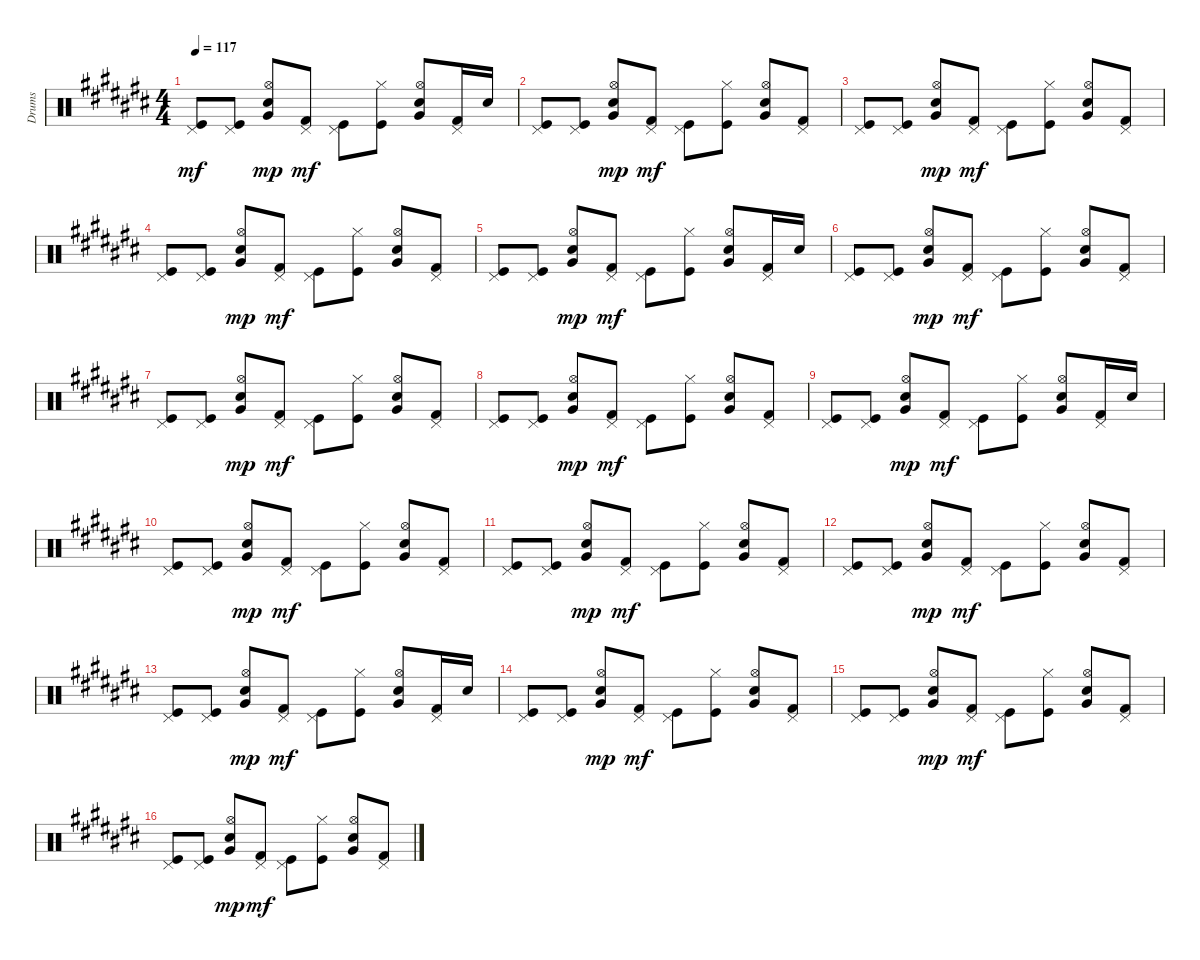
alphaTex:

\track ("Drums" "Drums") {instrument percussion}
\staff {score}
\articulation defaults
\ts (4 4)
\tempo 117
\clef neutral
\ks a#minor
("Pedal Hi-Hat (hit)" "Kick (hit)").8{dy mf} ("Kick (hit)" "Pedal Hi-Hat (hit)").8 ("Snare (hit) 2" "Hi-Hat (open)" "Very Low Tom (hit)").8{dy mp} ("Pedal Hi-Hat (hit)" "Kick (hit) 2").8{dy mf} ("Pedal Hi-Hat (hit)" "Kick (hit)").8 ("Kick (hit)" "Hi-Hat (closed)").8 ("Very Low Tom (hit)" "Snare (hit) 2" "Hi-Hat (open)").8 ("Pedal Hi-Hat (hit)" "Kick (hit) 2").16 "Snare (hit) 2".16 |
("Kick (hit)" "Pedal Hi-Hat (hit)").8 ("Kick (hit)" "Pedal Hi-Hat (hit)").8 ("Snare (hit) 2" "Hi-Hat (open)" "Very Low Tom (hit)").8{dy mp} ("Pedal Hi-Hat (hit)" "Kick (hit) 2").8{dy mf} ("Pedal Hi-Hat (hit)" "Kick (hit)").8 ("Kick (hit)" "Hi-Hat (closed)").8 ("Very Low Tom (hit)" "Snare (hit) 2" "Hi-Hat (open)").8 ("Pedal Hi-Hat (hit)" "Kick (hit) 2").8 |
("Pedal Hi-Hat (hit)" "Kick (hit)").8 ("Kick (hit)" "Pedal Hi-Hat (hit)").8 ("Snare (hit) 2" "Hi-Hat (open)" "Very Low Tom (hit)").8{dy mp} ("Pedal Hi-Hat (hit)" "Kick (hit) 2").8{dy mf} ("Pedal Hi-Hat (hit)" "Kick (hit)").8 ("Kick (hit)" "Hi-Hat (closed)").8 ("Very Low Tom (hit)" "Snare (hit) 2" "Hi-Hat (open)").8 ("Pedal Hi-Hat (hit)" "Kick (hit) 2").8 |
("Kick (hit)" "Pedal Hi-Hat (hit)").8 ("Kick (hit)" "Pedal Hi-Hat (hit)").8 ("Snare (hit) 2" "Hi-Hat (open)" "Very Low Tom (hit)").8{dy mp} ("Pedal Hi-Hat (hit)" "Kick (hit) 2").8{dy mf} ("Pedal Hi-Hat (hit)" "Kick (hit)").8 ("Kick (hit)" "Hi-Hat (closed)").8 ("Very Low Tom (hit)" "Snare (hit) 2" "Hi-Hat (open)").8 ("Pedal Hi-Hat (hit)" "Kick (hit) 2").8 |
("Pedal Hi-Hat (hit)" "Kick (hit)").8 ("Kick (hit)" "Pedal Hi-Hat (hit)").8 ("Snare (hit) 2" "Hi-Hat (open)" "Very Low Tom (hit)").8{dy mp} ("Pedal Hi-Hat (hit)" "Kick (hit) 2").8{dy mf} ("Pedal Hi-Hat (hit)" "Kick (hit)").8 ("Kick (hit)" "Hi-Hat (closed)").8 ("Very Low Tom (hit)" "Snare (hit) 2" "Hi-Hat (open)").8 ("Pedal Hi-Hat (hit)" "Kick (hit) 2").16 "Snare (hit) 2".16 |
("Kick (hit)" "Pedal Hi-Hat (hit)").8 ("Kick (hit)" "Pedal Hi-Hat (hit)").8 ("Snare (hit) 2" "Hi-Hat (open)" "Very Low Tom (hit)").8{dy mp} ("Pedal Hi-Hat (hit)" "Kick (hit) 2").8{dy mf} ("Pedal Hi-Hat (hit)" "Kick (hit)").8 ("Kick (hit)" "Hi-Hat (closed)").8 ("Very Low Tom (hit)" "Snare (hit) 2" "Hi-Hat (open)").8 ("Pedal Hi-Hat (hit)" "Kick (hit) 2").8 |
("Pedal Hi-Hat (hit)" "Kick (hit)").8 ("Kick (hit)" "Pedal Hi-Hat (hit)").8 ("Snare (hit) 2" "Hi-Hat (open)" "Very Low Tom (hit)").8{dy mp} ("Pedal Hi-Hat (hit)" "Kick (hit) 2").8{dy mf} ("Pedal Hi-Hat (hit)" "Kick (hit)").8 ("Kick (hit)" "Hi-Hat (closed)").8 ("Very Low Tom (hit)" "Snare (hit) 2" "Hi-Hat (open)").8 ("Pedal Hi-Hat (hit)" "Kick (hit) 2").8 |
("Kick (hit)" "Pedal Hi-Hat (hit)").8 ("Kick (hit)" "Pedal Hi-Hat (hit)").8 ("Snare (hit) 2" "Hi-Hat (open)" "Very Low Tom (hit)").8{dy mp} ("Pedal Hi-Hat (hit)" "Kick (hit) 2").8{dy mf} ("Pedal Hi-Hat (hit)" "Kick (hit)").8 ("Kick (hit)" "Hi-Hat (closed)").8 ("Very Low Tom (hit)" "Snare (hit) 2" "Hi-Hat (open)").8 ("Pedal Hi-Hat (hit)" "Kick (hit) 2").8 |
("Pedal Hi-Hat (hit)" "Kick (hit)").8 ("Kick (hit)" "Pedal Hi-Hat (hit)").8 ("Snare (hit) 2" "Hi-Hat (open)" "Very Low Tom (hit)").8{dy mp} ("Pedal Hi-Hat (hit)" "Kick (hit) 2").8{dy mf} ("Pedal Hi-Hat (hit)" "Kick (hit)").8 ("Kick (hit)" "Hi-Hat (closed)").8 ("Very Low Tom (hit)" "Snare (hit) 2" "Hi-Hat (open)").8 ("Pedal Hi-Hat (hit)" "Kick (hit) 2").16 "Snare (hit) 2".16 |
("Kick (hit)" "Pedal Hi-Hat (hit)").8 ("Kick (hit)" "Pedal Hi-Hat (hit)").8 ("Snare (hit) 2" "Hi-Hat (open)" "Very Low Tom (hit)").8{dy mp} ("Pedal Hi-Hat (hit)" "Kick (hit) 2").8{dy mf} ("Pedal Hi-Hat (hit)" "Kick (hit)").8 ("Kick (hit)" "Hi-Hat (closed)").8 ("Very Low Tom (hit)" "Snare (hit) 2" "Hi-Hat (open)").8 ("Pedal Hi-Hat (hit)" "Kick (hit) 2").8 |
("Pedal Hi-Hat (hit)" "Kick (hit)").8{volume 12} ("Kick (hit)" "Pedal Hi-Hat (hit)").8{volume 12} ("Snare (hit) 2" "Hi-Hat (open)" "Very Low Tom (hit)").8{dy mp volume 12} ("Pedal Hi-Hat (hit)" "Kick (hit) 2").8{dy mf volume 12} ("Pedal Hi-Hat (hit)" "Kick (hit)").8{volume 12} ("Kick (hit)" "Hi-Hat (closed)").8{volume 12} ("Very Low Tom (hit)" "Snare (hit) 2" "Hi-Hat (open)").8{volume 12} ("Pedal Hi-Hat (hit)" "Kick (hit) 2").8{volume 11} |
("Kick (hit)" "Pedal Hi-Hat (hit)").8{volume 11} ("Kick (hit)" "Pedal Hi-Hat (hit)").8{volume 11} ("Snare (hit) 2" "Hi-Hat (open)" "Very Low Tom (hit)").8{dy mp volume 11} ("Pedal Hi-Hat (hit)" "Kick (hit) 2").8{dy mf volume 11} ("Pedal Hi-Hat (hit)" "Kick (hit)").8{volume 10} ("Kick (hit)" "Hi-Hat (closed)").8{volume 10} ("Very Low Tom (hit)" "Snare (hit) 2" "Hi-Hat (open)").8{volume 10} ("Pedal Hi-Hat (hit)" "Kick (hit) 2").8{volume 10} |
("Pedal Hi-Hat (hit)" "Kick (hit)").8{volume 10} ("Kick (hit)" "Pedal Hi-Hat (hit)").8{volume 10} ("Snare (hit) 2" "Hi-Hat (open)" "Very Low Tom (hit)").8{dy mp volume 9} ("Pedal Hi-Hat (hit)" "Kick (hit) 2").8{dy mf volume 9} ("Pedal Hi-Hat (hit)" "Kick (hit)").8{volume 9} ("Kick (hit)" "Hi-Hat (closed)").8{volume 9} ("Very Low Tom (hit)" "Snare (hit) 2" "Hi-Hat (open)").8{volume 9} ("Pedal Hi-Hat (hit)" "Kick (hit) 2").16{volume 9} "Snare (hit) 2".16{volume 8} |
("Kick (hit)" "Pedal Hi-Hat (hit)").8{volume 8} ("Kick (hit)" "Pedal Hi-Hat (hit)").8{volume 8} ("Snare (hit) 2" "Hi-Hat (open)" "Very Low Tom (hit)").8{dy mp volume 8} ("Pedal Hi-Hat (hit)" "Kick (hit) 2").8{dy mf volume 8} ("Pedal Hi-Hat (hit)" "Kick (hit)").8{volume 8} ("Kick (hit)" "Hi-Hat (closed)").8{volume 8} ("Very Low Tom (hit)" "Snare (hit) 2" "Hi-Hat (open)").8{volume 7} ("Pedal Hi-Hat (hit)" "Kick (hit) 2").8{volume 7} |
("Pedal Hi-Hat (hit)" "Kick (hit)").8{volume 7} ("Kick (hit)" "Pedal Hi-Hat (hit)").8{volume 7} ("Snare (hit) 2" "Hi-Hat (open)" "Very Low Tom (hit)").8{dy mp volume 7} ("Pedal Hi-Hat (hit)" "Kick (hit) 2").8{dy mf volume 6} ("Pedal Hi-Hat (hit)" "Kick (hit)").8{volume 6} ("Kick (hit)" "Hi-Hat (closed)").8{volume 6} ("Very Low Tom (hit)" "Snare (hit) 2" "Hi-Hat (open)").8{volume 6} ("Pedal Hi-Hat (hit)" "Kick (hit) 2").8{volume 6} |
("Kick (hit)" "Pedal Hi-Hat (hit)").8{volume 6} ("Kick (hit)" "Pedal Hi-Hat (hit)").8{volume 6} ("Snare (hit) 2" "Hi-Hat (open)" "Very Low Tom (hit)").8{dy mp volume 5} ("Pedal Hi-Hat (hit)" "Kick (hit) 2").8{dy mf volume 5} ("Pedal Hi-Hat (hit)" "Kick (hit)").8{volume 5} ("Kick (hit)" "Hi-Hat (closed)").8{volume 5} ("Very Low Tom (hit)" "Snare (hit) 2" "Hi-Hat (open)").8{volume 5} ("Pedal Hi-Hat (hit)" "Kick (hit) 2").8{volume 4}
